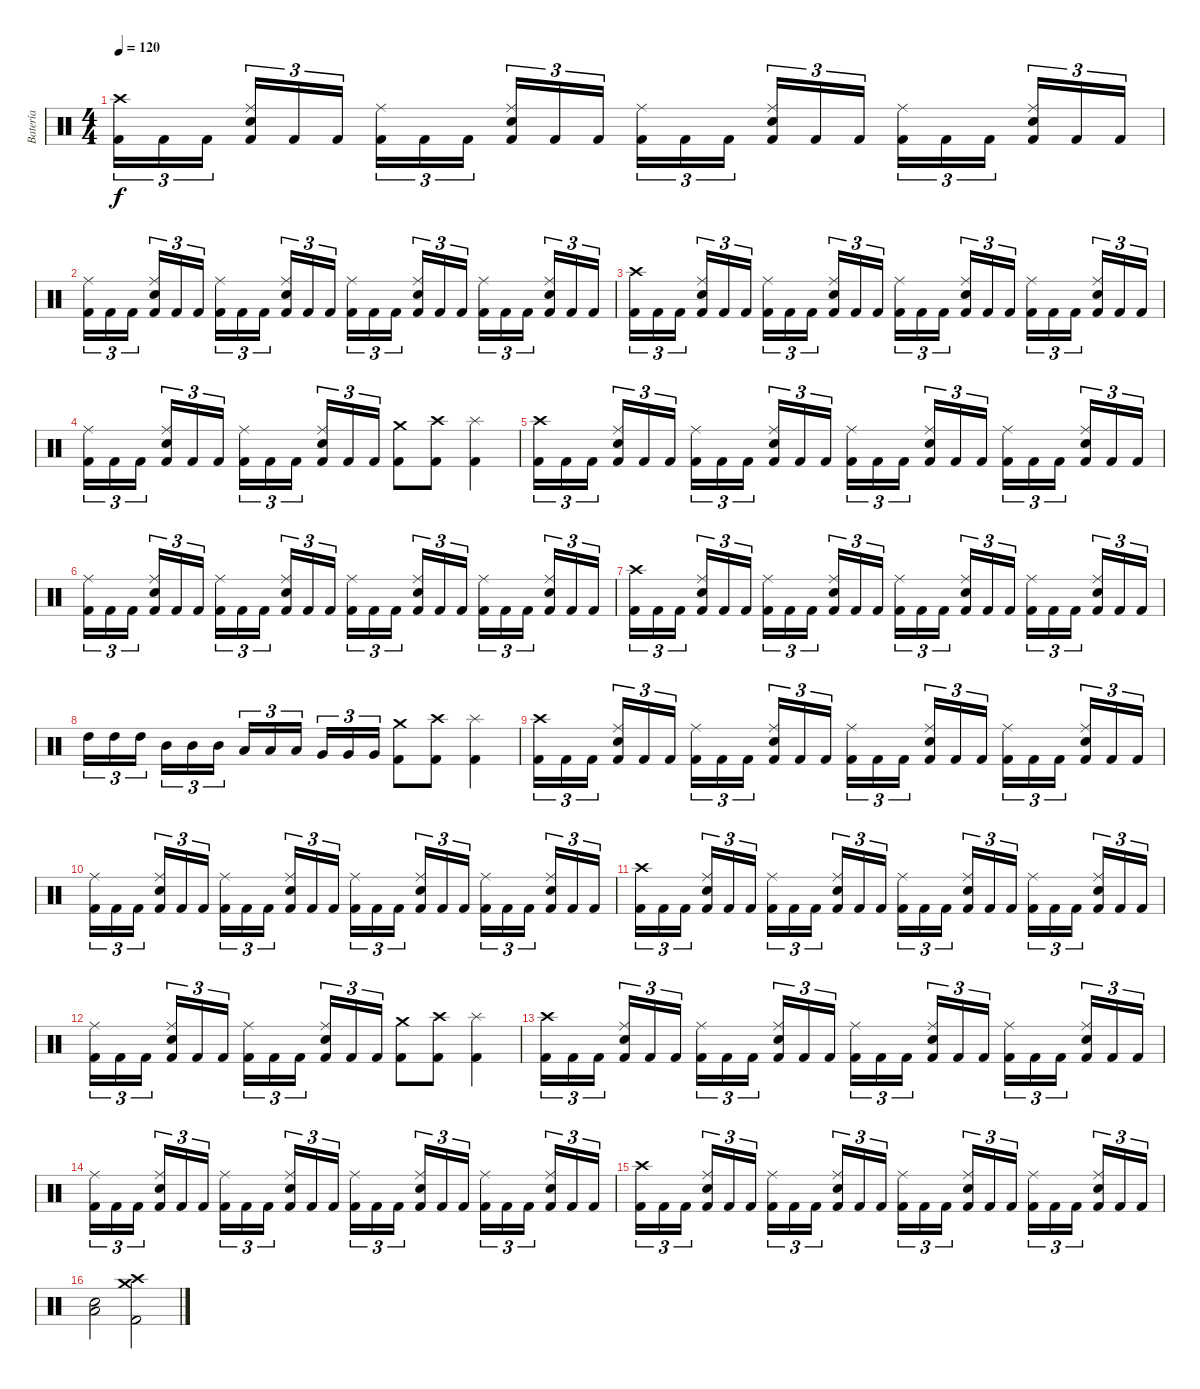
\track ("Batería" "Batería") {instrument percussion}
\staff {score}
\articulation defaults
\ts (4 4)
\tempo 120
\clef neutral
\ks c
("Kick (hit) 2" "Crash high (hit)").16{tu (3 2) dy f} "Kick (hit) 2".16{tu (3 2)} "Kick (hit) 2".16{tu (3 2)} ("Kick (hit) 2" "Ride (middle)" "Snare (hit) 2").16{tu (3 2)} "Kick (hit) 2".16{tu (3 2)} "Kick (hit) 2".16{tu (3 2)} ("Kick (hit) 2" "Ride (middle)").16{tu (3 2)} "Kick (hit) 2".16{tu (3 2)} "Kick (hit) 2".16{tu (3 2)} ("Kick (hit) 2" "Ride (middle)" "Snare (hit) 2").16{tu (3 2)} "Kick (hit) 2".16{tu (3 2)} "Kick (hit) 2".16{tu (3 2)} ("Kick (hit) 2" "Ride (middle)").16{tu (3 2)} "Kick (hit) 2".16{tu (3 2)} "Kick (hit) 2".16{tu (3 2)} ("Kick (hit) 2" "Ride (middle)" "Snare (hit) 2").16{tu (3 2)} "Kick (hit) 2".16{tu (3 2)} "Kick (hit) 2".16{tu (3 2)} ("Kick (hit) 2" "Ride (middle)").16{tu (3 2)} "Kick (hit) 2".16{tu (3 2)} "Kick (hit) 2".16{tu (3 2)} ("Kick (hit) 2" "Ride (middle)" "Snare (hit) 2").16{tu (3 2)} "Kick (hit) 2".16{tu (3 2)} "Kick (hit) 2".16{tu (3 2)} |
("Kick (hit) 2" "Ride (middle)").16{tu (3 2)} "Kick (hit) 2".16{tu (3 2)} "Kick (hit) 2".16{tu (3 2)} ("Kick (hit) 2" "Ride (middle)" "Snare (hit) 2").16{tu (3 2)} "Kick (hit) 2".16{tu (3 2)} "Kick (hit) 2".16{tu (3 2)} ("Kick (hit) 2" "Ride (middle)").16{tu (3 2)} "Kick (hit) 2".16{tu (3 2)} "Kick (hit) 2".16{tu (3 2)} ("Kick (hit) 2" "Ride (middle)" "Snare (hit) 2").16{tu (3 2)} "Kick (hit) 2".16{tu (3 2)} "Kick (hit) 2".16{tu (3 2)} ("Kick (hit) 2" "Ride (middle)").16{tu (3 2)} "Kick (hit) 2".16{tu (3 2)} "Kick (hit) 2".16{tu (3 2)} ("Kick (hit) 2" "Ride (middle)" "Snare (hit) 2").16{tu (3 2)} "Kick (hit) 2".16{tu (3 2)} "Kick (hit) 2".16{tu (3 2)} ("Kick (hit) 2" "Ride (middle)").16{tu (3 2)} "Kick (hit) 2".16{tu (3 2)} "Kick (hit) 2".16{tu (3 2)} ("Kick (hit) 2" "Ride (middle)" "Snare (hit) 2").16{tu (3 2)} "Kick (hit) 2".16{tu (3 2)} "Kick (hit) 2".16{tu (3 2)} |
("Kick (hit) 2" "Crash high (hit)").16{tu (3 2)} "Kick (hit) 2".16{tu (3 2)} "Kick (hit) 2".16{tu (3 2)} ("Kick (hit) 2" "Ride (middle)" "Snare (hit) 2").16{tu (3 2)} "Kick (hit) 2".16{tu (3 2)} "Kick (hit) 2".16{tu (3 2)} ("Kick (hit) 2" "Ride (middle)").16{tu (3 2)} "Kick (hit) 2".16{tu (3 2)} "Kick (hit) 2".16{tu (3 2)} ("Kick (hit) 2" "Ride (middle)" "Snare (hit) 2").16{tu (3 2)} "Kick (hit) 2".16{tu (3 2)} "Kick (hit) 2".16{tu (3 2)} ("Kick (hit) 2" "Ride (middle)").16{tu (3 2)} "Kick (hit) 2".16{tu (3 2)} "Kick (hit) 2".16{tu (3 2)} ("Kick (hit) 2" "Ride (middle)" "Snare (hit) 2").16{tu (3 2)} "Kick (hit) 2".16{tu (3 2)} "Kick (hit) 2".16{tu (3 2)} ("Kick (hit) 2" "Ride (middle)").16{tu (3 2)} "Kick (hit) 2".16{tu (3 2)} "Kick (hit) 2".16{tu (3 2)} ("Kick (hit) 2" "Ride (middle)" "Snare (hit) 2").16{tu (3 2)} "Kick (hit) 2".16{tu (3 2)} "Kick (hit) 2".16{tu (3 2)} |
("Kick (hit) 2" "Ride (middle)").16{tu (3 2)} "Kick (hit) 2".16{tu (3 2)} "Kick (hit) 2".16{tu (3 2)} ("Kick (hit) 2" "Ride (middle)" "Snare (hit) 2").16{tu (3 2)} "Kick (hit) 2".16{tu (3 2)} "Kick (hit) 2".16{tu (3 2)} ("Kick (hit) 2" "Ride (middle)").16{tu (3 2)} "Kick (hit) 2".16{tu (3 2)} "Kick (hit) 2".16{tu (3 2)} ("Kick (hit) 2" "Ride (middle)" "Snare (hit) 2").16{tu (3 2)} "Kick (hit) 2".16{tu (3 2)} "Kick (hit) 2".16{tu (3 2)} ("Crash medium (hit)" "Kick (hit) 2").8 ("Crash high (hit)" "Kick (hit) 2").8 ("Splash (hit)" "Kick (hit) 2").4 |
("Kick (hit) 2" "Crash high (hit)").16{tu (3 2)} "Kick (hit) 2".16{tu (3 2)} "Kick (hit) 2".16{tu (3 2)} ("Kick (hit) 2" "Ride (middle)" "Snare (hit) 2").16{tu (3 2)} "Kick (hit) 2".16{tu (3 2)} "Kick (hit) 2".16{tu (3 2)} ("Kick (hit) 2" "Ride (middle)").16{tu (3 2)} "Kick (hit) 2".16{tu (3 2)} "Kick (hit) 2".16{tu (3 2)} ("Kick (hit) 2" "Ride (middle)" "Snare (hit) 2").16{tu (3 2)} "Kick (hit) 2".16{tu (3 2)} "Kick (hit) 2".16{tu (3 2)} ("Kick (hit) 2" "Ride (middle)").16{tu (3 2)} "Kick (hit) 2".16{tu (3 2)} "Kick (hit) 2".16{tu (3 2)} ("Kick (hit) 2" "Ride (middle)" "Snare (hit) 2").16{tu (3 2)} "Kick (hit) 2".16{tu (3 2)} "Kick (hit) 2".16{tu (3 2)} ("Kick (hit) 2" "Ride (middle)").16{tu (3 2)} "Kick (hit) 2".16{tu (3 2)} "Kick (hit) 2".16{tu (3 2)} ("Kick (hit) 2" "Ride (middle)" "Snare (hit) 2").16{tu (3 2)} "Kick (hit) 2".16{tu (3 2)} "Kick (hit) 2".16{tu (3 2)} |
("Kick (hit) 2" "Ride (middle)").16{tu (3 2)} "Kick (hit) 2".16{tu (3 2)} "Kick (hit) 2".16{tu (3 2)} ("Kick (hit) 2" "Ride (middle)" "Snare (hit) 2").16{tu (3 2)} "Kick (hit) 2".16{tu (3 2)} "Kick (hit) 2".16{tu (3 2)} ("Kick (hit) 2" "Ride (middle)").16{tu (3 2)} "Kick (hit) 2".16{tu (3 2)} "Kick (hit) 2".16{tu (3 2)} ("Kick (hit) 2" "Ride (middle)" "Snare (hit) 2").16{tu (3 2)} "Kick (hit) 2".16{tu (3 2)} "Kick (hit) 2".16{tu (3 2)} ("Kick (hit) 2" "Ride (middle)").16{tu (3 2)} "Kick (hit) 2".16{tu (3 2)} "Kick (hit) 2".16{tu (3 2)} ("Kick (hit) 2" "Ride (middle)" "Snare (hit) 2").16{tu (3 2)} "Kick (hit) 2".16{tu (3 2)} "Kick (hit) 2".16{tu (3 2)} ("Kick (hit) 2" "Ride (middle)").16{tu (3 2)} "Kick (hit) 2".16{tu (3 2)} "Kick (hit) 2".16{tu (3 2)} ("Kick (hit) 2" "Ride (middle)" "Snare (hit) 2").16{tu (3 2)} "Kick (hit) 2".16{tu (3 2)} "Kick (hit) 2".16{tu (3 2)} |
("Kick (hit) 2" "Crash high (hit)").16{tu (3 2)} "Kick (hit) 2".16{tu (3 2)} "Kick (hit) 2".16{tu (3 2)} ("Kick (hit) 2" "Ride (middle)" "Snare (hit) 2").16{tu (3 2)} "Kick (hit) 2".16{tu (3 2)} "Kick (hit) 2".16{tu (3 2)} ("Kick (hit) 2" "Ride (middle)").16{tu (3 2)} "Kick (hit) 2".16{tu (3 2)} "Kick (hit) 2".16{tu (3 2)} ("Kick (hit) 2" "Ride (middle)" "Snare (hit) 2").16{tu (3 2)} "Kick (hit) 2".16{tu (3 2)} "Kick (hit) 2".16{tu (3 2)} ("Kick (hit) 2" "Ride (middle)").16{tu (3 2)} "Kick (hit) 2".16{tu (3 2)} "Kick (hit) 2".16{tu (3 2)} ("Kick (hit) 2" "Ride (middle)" "Snare (hit) 2").16{tu (3 2)} "Kick (hit) 2".16{tu (3 2)} "Kick (hit) 2".16{tu (3 2)} ("Kick (hit) 2" "Ride (middle)").16{tu (3 2)} "Kick (hit) 2".16{tu (3 2)} "Kick (hit) 2".16{tu (3 2)} ("Kick (hit) 2" "Ride (middle)" "Snare (hit) 2").16{tu (3 2)} "Kick (hit) 2".16{tu (3 2)} "Kick (hit) 2".16{tu (3 2)} |
"High Tom (hit)".16{tu (3 2)} "High Tom (hit)".16{tu (3 2)} "High Tom (hit)".16{tu (3 2)} "Mid Tom (hit)".16{tu (3 2)} "Mid Tom (hit)".16{tu (3 2)} "Mid Tom (hit)".16{tu (3 2)} "Low Tom (hit)".16{tu (3 2)} "Low Tom (hit)".16{tu (3 2)} "Low Tom (hit)".16{tu (3 2)} "Very Low Tom (hit)".16{tu (3 2)} "Very Low Tom (hit)".16{tu (3 2)} "Very Low Tom (hit)".16{tu (3 2)} ("Crash medium (hit)" "Kick (hit) 2").8 ("Crash high (hit)" "Kick (hit) 2").8 ("Splash (hit)" "Kick (hit) 2").4 |
("Kick (hit) 2" "Crash high (hit)").16{tu (3 2)} "Kick (hit) 2".16{tu (3 2)} "Kick (hit) 2".16{tu (3 2)} ("Kick (hit) 2" "Ride (middle)" "Snare (hit) 2").16{tu (3 2)} "Kick (hit) 2".16{tu (3 2)} "Kick (hit) 2".16{tu (3 2)} ("Kick (hit) 2" "Ride (middle)").16{tu (3 2)} "Kick (hit) 2".16{tu (3 2)} "Kick (hit) 2".16{tu (3 2)} ("Kick (hit) 2" "Ride (middle)" "Snare (hit) 2").16{tu (3 2)} "Kick (hit) 2".16{tu (3 2)} "Kick (hit) 2".16{tu (3 2)} ("Kick (hit) 2" "Ride (middle)").16{tu (3 2)} "Kick (hit) 2".16{tu (3 2)} "Kick (hit) 2".16{tu (3 2)} ("Kick (hit) 2" "Ride (middle)" "Snare (hit) 2").16{tu (3 2)} "Kick (hit) 2".16{tu (3 2)} "Kick (hit) 2".16{tu (3 2)} ("Kick (hit) 2" "Ride (middle)").16{tu (3 2)} "Kick (hit) 2".16{tu (3 2)} "Kick (hit) 2".16{tu (3 2)} ("Kick (hit) 2" "Ride (middle)" "Snare (hit) 2").16{tu (3 2)} "Kick (hit) 2".16{tu (3 2)} "Kick (hit) 2".16{tu (3 2)} |
("Kick (hit) 2" "Ride (middle)").16{tu (3 2)} "Kick (hit) 2".16{tu (3 2)} "Kick (hit) 2".16{tu (3 2)} ("Kick (hit) 2" "Ride (middle)" "Snare (hit) 2").16{tu (3 2)} "Kick (hit) 2".16{tu (3 2)} "Kick (hit) 2".16{tu (3 2)} ("Kick (hit) 2" "Ride (middle)").16{tu (3 2)} "Kick (hit) 2".16{tu (3 2)} "Kick (hit) 2".16{tu (3 2)} ("Kick (hit) 2" "Ride (middle)" "Snare (hit) 2").16{tu (3 2)} "Kick (hit) 2".16{tu (3 2)} "Kick (hit) 2".16{tu (3 2)} ("Kick (hit) 2" "Ride (middle)").16{tu (3 2)} "Kick (hit) 2".16{tu (3 2)} "Kick (hit) 2".16{tu (3 2)} ("Kick (hit) 2" "Ride (middle)" "Snare (hit) 2").16{tu (3 2)} "Kick (hit) 2".16{tu (3 2)} "Kick (hit) 2".16{tu (3 2)} ("Kick (hit) 2" "Ride (middle)").16{tu (3 2)} "Kick (hit) 2".16{tu (3 2)} "Kick (hit) 2".16{tu (3 2)} ("Kick (hit) 2" "Ride (middle)" "Snare (hit) 2").16{tu (3 2)} "Kick (hit) 2".16{tu (3 2)} "Kick (hit) 2".16{tu (3 2)} |
("Kick (hit) 2" "Crash high (hit)").16{tu (3 2)} "Kick (hit) 2".16{tu (3 2)} "Kick (hit) 2".16{tu (3 2)} ("Kick (hit) 2" "Ride (middle)" "Snare (hit) 2").16{tu (3 2)} "Kick (hit) 2".16{tu (3 2)} "Kick (hit) 2".16{tu (3 2)} ("Kick (hit) 2" "Ride (middle)").16{tu (3 2)} "Kick (hit) 2".16{tu (3 2)} "Kick (hit) 2".16{tu (3 2)} ("Kick (hit) 2" "Ride (middle)" "Snare (hit) 2").16{tu (3 2)} "Kick (hit) 2".16{tu (3 2)} "Kick (hit) 2".16{tu (3 2)} ("Kick (hit) 2" "Ride (middle)").16{tu (3 2)} "Kick (hit) 2".16{tu (3 2)} "Kick (hit) 2".16{tu (3 2)} ("Kick (hit) 2" "Ride (middle)" "Snare (hit) 2").16{tu (3 2)} "Kick (hit) 2".16{tu (3 2)} "Kick (hit) 2".16{tu (3 2)} ("Kick (hit) 2" "Ride (middle)").16{tu (3 2)} "Kick (hit) 2".16{tu (3 2)} "Kick (hit) 2".16{tu (3 2)} ("Kick (hit) 2" "Ride (middle)" "Snare (hit) 2").16{tu (3 2)} "Kick (hit) 2".16{tu (3 2)} "Kick (hit) 2".16{tu (3 2)} |
("Kick (hit) 2" "Ride (middle)").16{tu (3 2)} "Kick (hit) 2".16{tu (3 2)} "Kick (hit) 2".16{tu (3 2)} ("Kick (hit) 2" "Ride (middle)" "Snare (hit) 2").16{tu (3 2)} "Kick (hit) 2".16{tu (3 2)} "Kick (hit) 2".16{tu (3 2)} ("Kick (hit) 2" "Ride (middle)").16{tu (3 2)} "Kick (hit) 2".16{tu (3 2)} "Kick (hit) 2".16{tu (3 2)} ("Kick (hit) 2" "Ride (middle)" "Snare (hit) 2").16{tu (3 2)} "Kick (hit) 2".16{tu (3 2)} "Kick (hit) 2".16{tu (3 2)} ("Crash medium (hit)" "Kick (hit) 2").8 ("Crash high (hit)" "Kick (hit) 2").8 ("Splash (hit)" "Kick (hit) 2").4 |
("Kick (hit) 2" "Crash high (hit)").16{tu (3 2)} "Kick (hit) 2".16{tu (3 2)} "Kick (hit) 2".16{tu (3 2)} ("Kick (hit) 2" "Ride (middle)" "Snare (hit) 2").16{tu (3 2)} "Kick (hit) 2".16{tu (3 2)} "Kick (hit) 2".16{tu (3 2)} ("Kick (hit) 2" "Ride (middle)").16{tu (3 2)} "Kick (hit) 2".16{tu (3 2)} "Kick (hit) 2".16{tu (3 2)} ("Kick (hit) 2" "Ride (middle)" "Snare (hit) 2").16{tu (3 2)} "Kick (hit) 2".16{tu (3 2)} "Kick (hit) 2".16{tu (3 2)} ("Kick (hit) 2" "Ride (middle)").16{tu (3 2)} "Kick (hit) 2".16{tu (3 2)} "Kick (hit) 2".16{tu (3 2)} ("Kick (hit) 2" "Ride (middle)" "Snare (hit) 2").16{tu (3 2)} "Kick (hit) 2".16{tu (3 2)} "Kick (hit) 2".16{tu (3 2)} ("Kick (hit) 2" "Ride (middle)").16{tu (3 2)} "Kick (hit) 2".16{tu (3 2)} "Kick (hit) 2".16{tu (3 2)} ("Kick (hit) 2" "Ride (middle)" "Snare (hit) 2").16{tu (3 2)} "Kick (hit) 2".16{tu (3 2)} "Kick (hit) 2".16{tu (3 2)} |
("Kick (hit) 2" "Ride (middle)").16{tu (3 2)} "Kick (hit) 2".16{tu (3 2)} "Kick (hit) 2".16{tu (3 2)} ("Kick (hit) 2" "Ride (middle)" "Snare (hit) 2").16{tu (3 2)} "Kick (hit) 2".16{tu (3 2)} "Kick (hit) 2".16{tu (3 2)} ("Kick (hit) 2" "Ride (middle)").16{tu (3 2)} "Kick (hit) 2".16{tu (3 2)} "Kick (hit) 2".16{tu (3 2)} ("Kick (hit) 2" "Ride (middle)" "Snare (hit) 2").16{tu (3 2)} "Kick (hit) 2".16{tu (3 2)} "Kick (hit) 2".16{tu (3 2)} ("Kick (hit) 2" "Ride (middle)").16{tu (3 2)} "Kick (hit) 2".16{tu (3 2)} "Kick (hit) 2".16{tu (3 2)} ("Kick (hit) 2" "Ride (middle)" "Snare (hit) 2").16{tu (3 2)} "Kick (hit) 2".16{tu (3 2)} "Kick (hit) 2".16{tu (3 2)} ("Kick (hit) 2" "Ride (middle)").16{tu (3 2)} "Kick (hit) 2".16{tu (3 2)} "Kick (hit) 2".16{tu (3 2)} ("Kick (hit) 2" "Ride (middle)" "Snare (hit) 2").16{tu (3 2)} "Kick (hit) 2".16{tu (3 2)} "Kick (hit) 2".16{tu (3 2)} |
("Kick (hit) 2" "Crash high (hit)").16{tu (3 2)} "Kick (hit) 2".16{tu (3 2)} "Kick (hit) 2".16{tu (3 2)} ("Kick (hit) 2" "Ride (middle)" "Snare (hit) 2").16{tu (3 2)} "Kick (hit) 2".16{tu (3 2)} "Kick (hit) 2".16{tu (3 2)} ("Kick (hit) 2" "Ride (middle)").16{tu (3 2)} "Kick (hit) 2".16{tu (3 2)} "Kick (hit) 2".16{tu (3 2)} ("Kick (hit) 2" "Ride (middle)" "Snare (hit) 2").16{tu (3 2)} "Kick (hit) 2".16{tu (3 2)} "Kick (hit) 2".16{tu (3 2)} ("Kick (hit) 2" "Ride (middle)").16{tu (3 2)} "Kick (hit) 2".16{tu (3 2)} "Kick (hit) 2".16{tu (3 2)} ("Kick (hit) 2" "Ride (middle)" "Snare (hit) 2").16{tu (3 2)} "Kick (hit) 2".16{tu (3 2)} "Kick (hit) 2".16{tu (3 2)} ("Kick (hit) 2" "Ride (middle)").16{tu (3 2)} "Kick (hit) 2".16{tu (3 2)} "Kick (hit) 2".16{tu (3 2)} ("Kick (hit) 2" "Ride (middle)" "Snare (hit) 2").16{tu (3 2)} "Kick (hit) 2".16{tu (3 2)} "Kick (hit) 2".16{tu (3 2)} |
("Snare (hit) 2" "Low Tom (hit)").2 ("Crash medium (hit)" "Crash high (hit)" "Kick (hit) 2").2
